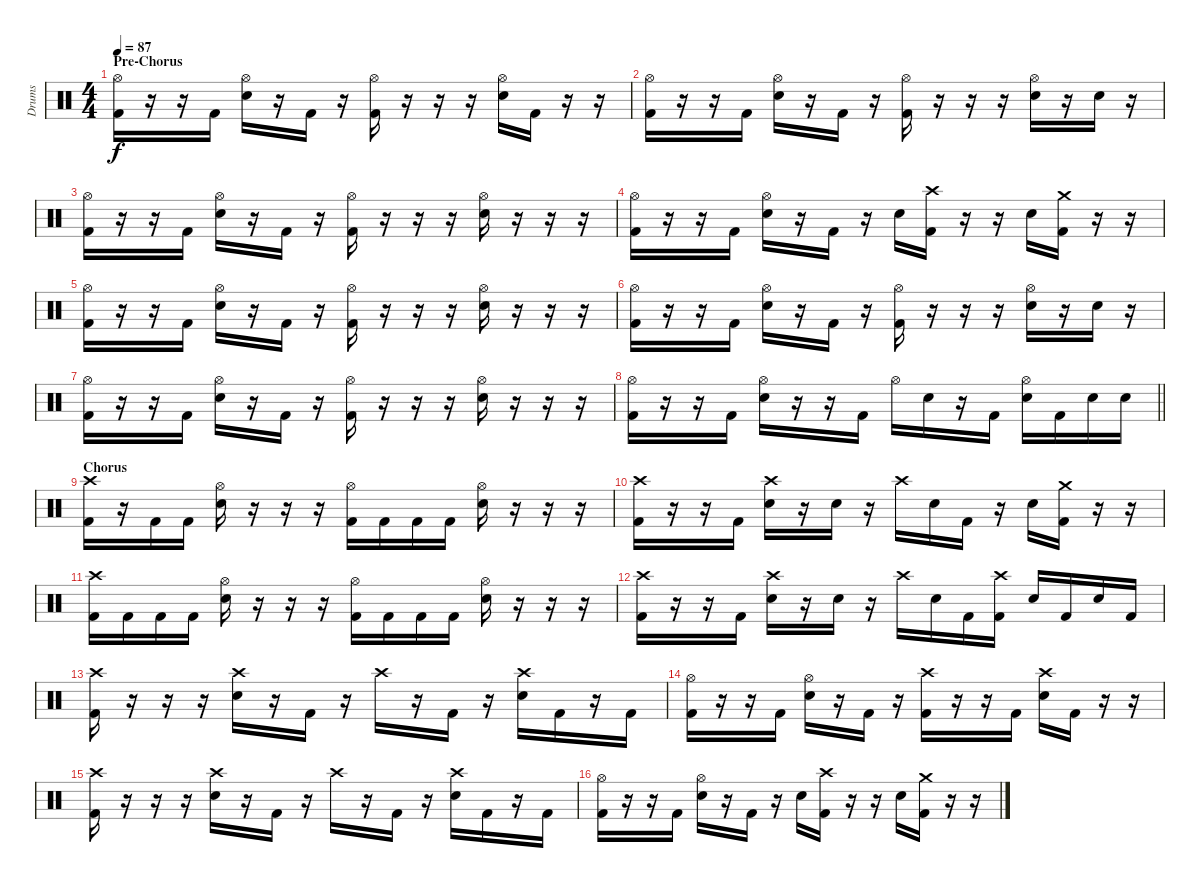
\track ("Drums" "Drums") {instrument percussion}
\staff {score}
\articulation defaults
\ts (4 4)
\section ("" "Pre-Chorus")
\tempo 87
\clef neutral
\ks c
("Hi-Hat (open)" "Kick (hit) 2").16{dy f} r.16 r.16 "Kick (hit) 2".16 ("Hi-Hat (open)" "Electric Snare (hit)").16 r.16 "Kick (hit) 2".16 r.16 ("Hi-Hat (open)" "Kick (hit) 2").16 r.16 r.16 r.16 ("Hi-Hat (open)" "Electric Snare (hit)").16 "Kick (hit) 2".16 r.16 r.16 |
("Hi-Hat (open)" "Kick (hit) 2").16 r.16 r.16 "Kick (hit) 2".16 ("Hi-Hat (open)" "Electric Snare (hit)").16 r.16 "Kick (hit) 2".16 r.16 ("Hi-Hat (open)" "Kick (hit) 2").16 r.16 r.16 r.16 ("Hi-Hat (open)" "Electric Snare (hit)").16 r.16 "Electric Snare (hit)".16 r.16 |
("Hi-Hat (open)" "Kick (hit) 2").16 r.16 r.16 "Kick (hit) 2".16 ("Hi-Hat (open)" "Electric Snare (hit)").16 r.16 "Kick (hit) 2".16 r.16 ("Hi-Hat (open)" "Kick (hit) 2").16 r.16 r.16 r.16 ("Hi-Hat (open)" "Electric Snare (hit)").16 r.16 r.16 r.16 |
("Hi-Hat (open)" "Kick (hit) 2").16 r.16 r.16 "Kick (hit) 2".16 ("Hi-Hat (open)" "Electric Snare (hit)").16 r.16 "Kick (hit) 2".16 r.16 "Electric Snare (hit)".16 ("Crash high (hit)" "Kick (hit) 2").16 r.16 r.16 "Electric Snare (hit)".16 ("Crash medium (hit)" "Kick (hit) 2").16 r.16 r.16 |
("Hi-Hat (open)" "Kick (hit) 2").16 r.16 r.16 "Kick (hit) 2".16 ("Hi-Hat (open)" "Electric Snare (hit)").16 r.16 "Kick (hit) 2".16 r.16 ("Hi-Hat (open)" "Kick (hit) 2").16 r.16 r.16 r.16 ("Hi-Hat (open)" "Electric Snare (hit)").16 r.16 r.16 r.16 |
("Hi-Hat (open)" "Kick (hit) 2").16 r.16 r.16 "Kick (hit) 2".16 ("Hi-Hat (open)" "Electric Snare (hit)").16 r.16 "Kick (hit) 2".16 r.16 ("Hi-Hat (open)" "Kick (hit) 2").16 r.16 r.16 r.16 ("Hi-Hat (open)" "Electric Snare (hit)").16 r.16 "Electric Snare (hit)".16 r.16 |
("Hi-Hat (open)" "Kick (hit) 2").16 r.16 r.16 "Kick (hit) 2".16 ("Hi-Hat (open)" "Electric Snare (hit)").16 r.16 "Kick (hit) 2".16 r.16 ("Hi-Hat (open)" "Kick (hit) 2").16 r.16 r.16 r.16 ("Hi-Hat (open)" "Electric Snare (hit)").16 r.16 r.16 r.16 |
\barLineRight lightlight
("Hi-Hat (open)" "Kick (hit) 2").16 r.16 r.16 "Kick (hit) 2".16 ("Hi-Hat (open)" "Electric Snare (hit)").16 r.16 r.16 "Kick (hit) 2".16 "Hi-Hat (open)".16 "Electric Snare (hit)".16 r.16 "Kick (hit) 2".16 ("Hi-Hat (open)" "Electric Snare (hit)").16 "Kick (hit) 2".16 "Electric Snare (hit)".16 "Electric Snare (hit)".16 |
\section ("" "Chorus")
("Crash high (hit)" "Kick (hit) 2").16 r.16 "Kick (hit) 2".16 "Kick (hit) 2".16 ("Hi-Hat (open)" "Electric Snare (hit)").16 r.16 r.16 r.16 ("Hi-Hat (open)" "Kick (hit) 2").16 "Kick (hit) 2".16 "Kick (hit) 2".16 "Kick (hit) 2".16 ("Hi-Hat (open)" "Electric Snare (hit)").16 r.16 r.16 r.16 |
("Crash high (hit)" "Kick (hit) 2").16 r.16 r.16 "Kick (hit) 2".16 ("Crash high (hit)" "Electric Snare (hit)").16 r.16 "Electric Snare (hit)".16 r.16 "Crash high (hit)".16 "Electric Snare (hit)".16 "Kick (hit) 2".16 r.16 "Electric Snare (hit)".16 ("Crash medium (hit)" "Kick (hit) 2").16 r.16 r.16 |
("Crash high (hit)" "Kick (hit) 2").16 "Kick (hit) 2".16 "Kick (hit) 2".16 "Kick (hit) 2".16 ("Hi-Hat (open)" "Electric Snare (hit)").16 r.16 r.16 r.16 ("Hi-Hat (open)" "Kick (hit) 2").16 "Kick (hit) 2".16 "Kick (hit) 2".16 "Kick (hit) 2".16 ("Hi-Hat (open)" "Electric Snare (hit)").16 r.16 r.16 r.16 |
("Crash high (hit)" "Kick (hit) 2").16 r.16 r.16 "Kick (hit) 2".16 ("Crash high (hit)" "Electric Snare (hit)").16 r.16 "Electric Snare (hit)".16 r.16 "Crash high (hit)".16 "Electric Snare (hit)".16 "Kick (hit) 2".16 ("Crash high (hit)" "Kick (hit) 2").16 "Electric Snare (hit)".16 "Kick (hit) 2".16 "Electric Snare (hit)".16 "Kick (hit) 2".16 |
("Crash high (hit)" "Kick (hit) 2").16 r.16 r.16 r.16 ("Crash high (hit)" "Electric Snare (hit)").16 r.16 "Kick (hit) 2".16 r.16 "Crash high (hit)".16 r.16 "Kick (hit) 2".16 r.16 ("Crash high (hit)" "Electric Snare (hit)").16 "Kick (hit) 2".16 r.16 "Kick (hit) 2".16 |
("Hi-Hat (open)" "Kick (hit) 2").16 r.16 r.16 "Kick (hit) 2".16 ("Hi-Hat (open)" "Electric Snare (hit)").16 r.16 "Kick (hit) 2".16 r.16 ("Crash high (hit)" "Kick (hit) 2").16 r.16 r.16 "Kick (hit) 2".16 ("Crash high (hit)" "Electric Snare (hit)").16 "Kick (hit) 2".16 r.16 r.16 |
("Crash high (hit)" "Kick (hit) 2").16 r.16 r.16 r.16 ("Crash high (hit)" "Electric Snare (hit)").16 r.16 "Kick (hit) 2".16 r.16 "Crash high (hit)".16 r.16 "Kick (hit) 2".16 r.16 ("Crash high (hit)" "Electric Snare (hit)").16 "Kick (hit) 2".16 r.16 "Kick (hit) 2".16 |
("Hi-Hat (open)" "Kick (hit) 2").16 r.16 r.16 "Kick (hit) 2".16 ("Hi-Hat (open)" "Electric Snare (hit)").16 r.16 "Kick (hit) 2".16 r.16 "Electric Snare (hit)".16 ("Crash high (hit)" "Kick (hit) 2").16 r.16 r.16 "Electric Snare (hit)".16 ("Crash medium (hit)" "Kick (hit) 2").16 r.16 r.16
